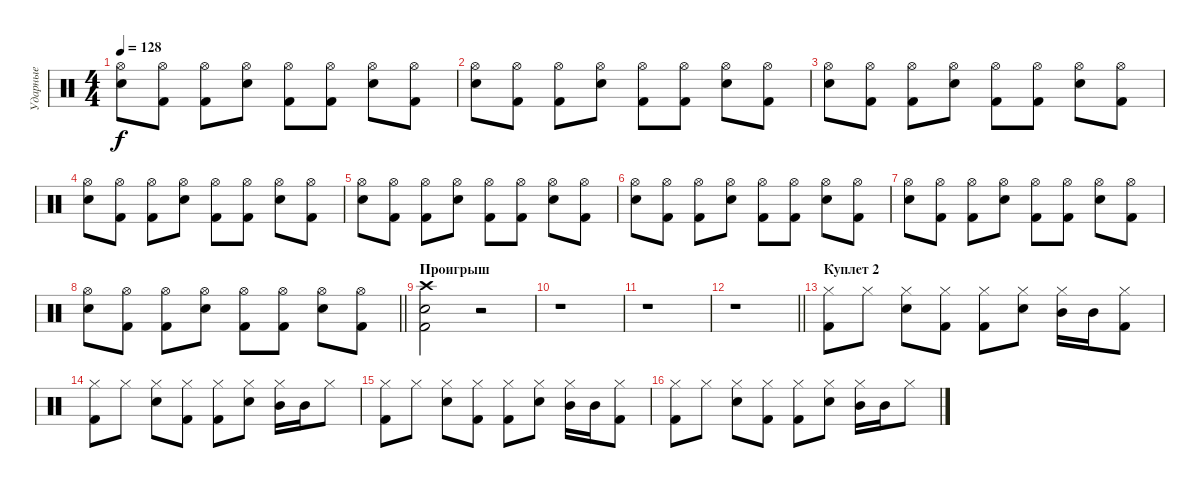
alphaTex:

\track ("Ударные" "Ударные") {instrument percussion}
\staff {score}
\articulation defaults
\ts (4 4)
\tempo 128
\clef neutral
\ks c
("Snare (hit) 2" "Hi-Hat (open)").8{dy f} ("Kick (hit) 2" "Hi-Hat (open)").8 ("Kick (hit) 2" "Hi-Hat (open)").8 ("Snare (hit) 2" "Hi-Hat (open)").8 ("Kick (hit) 2" "Hi-Hat (open)").8 ("Kick (hit) 2" "Hi-Hat (open)").8 ("Snare (hit) 2" "Hi-Hat (open)").8 ("Kick (hit) 2" "Hi-Hat (open)").8 |
("Snare (hit) 2" "Hi-Hat (open)").8 ("Kick (hit) 2" "Hi-Hat (open)").8 ("Kick (hit) 2" "Hi-Hat (open)").8 ("Snare (hit) 2" "Hi-Hat (open)").8 ("Kick (hit) 2" "Hi-Hat (open)").8 ("Kick (hit) 2" "Hi-Hat (open)").8 ("Snare (hit) 2" "Hi-Hat (open)").8 ("Kick (hit) 2" "Hi-Hat (open)").8 |
("Snare (hit) 2" "Hi-Hat (open)").8 ("Kick (hit) 2" "Hi-Hat (open)").8 ("Kick (hit) 2" "Hi-Hat (open)").8 ("Snare (hit) 2" "Hi-Hat (open)").8 ("Kick (hit) 2" "Hi-Hat (open)").8 ("Kick (hit) 2" "Hi-Hat (open)").8 ("Snare (hit) 2" "Hi-Hat (open)").8 ("Kick (hit) 2" "Hi-Hat (open)").8 |
("Snare (hit) 2" "Hi-Hat (open)").8 ("Kick (hit) 2" "Hi-Hat (open)").8 ("Kick (hit) 2" "Hi-Hat (open)").8 ("Snare (hit) 2" "Hi-Hat (open)").8 ("Kick (hit) 2" "Hi-Hat (open)").8 ("Kick (hit) 2" "Hi-Hat (open)").8 ("Snare (hit) 2" "Hi-Hat (open)").8 ("Kick (hit) 2" "Hi-Hat (open)").8 |
("Snare (hit) 2" "Hi-Hat (open)").8 ("Kick (hit) 2" "Hi-Hat (open)").8 ("Kick (hit) 2" "Hi-Hat (open)").8 ("Snare (hit) 2" "Hi-Hat (open)").8 ("Kick (hit) 2" "Hi-Hat (open)").8 ("Kick (hit) 2" "Hi-Hat (open)").8 ("Snare (hit) 2" "Hi-Hat (open)").8 ("Kick (hit) 2" "Hi-Hat (open)").8 |
("Snare (hit) 2" "Hi-Hat (open)").8 ("Kick (hit) 2" "Hi-Hat (open)").8 ("Kick (hit) 2" "Hi-Hat (open)").8 ("Snare (hit) 2" "Hi-Hat (open)").8 ("Kick (hit) 2" "Hi-Hat (open)").8 ("Kick (hit) 2" "Hi-Hat (open)").8 ("Snare (hit) 2" "Hi-Hat (open)").8 ("Kick (hit) 2" "Hi-Hat (open)").8 |
("Snare (hit) 2" "Hi-Hat (open)").8 ("Kick (hit) 2" "Hi-Hat (open)").8 ("Kick (hit) 2" "Hi-Hat (open)").8 ("Snare (hit) 2" "Hi-Hat (open)").8 ("Kick (hit) 2" "Hi-Hat (open)").8 ("Kick (hit) 2" "Hi-Hat (open)").8 ("Snare (hit) 2" "Hi-Hat (open)").8 ("Kick (hit) 2" "Hi-Hat (open)").8 |
\barLineRight lightlight
("Snare (hit) 2" "Hi-Hat (open)").8 ("Kick (hit) 2" "Hi-Hat (open)").8 ("Kick (hit) 2" "Hi-Hat (open)").8 ("Snare (hit) 2" "Hi-Hat (open)").8 ("Kick (hit) 2" "Hi-Hat (open)").8 ("Kick (hit) 2" "Hi-Hat (open)").8 ("Snare (hit) 2" "Hi-Hat (open)").8 ("Kick (hit) 2" "Hi-Hat (open)").8 |
\section ("" "Проигрыш")
("Crash high (hit)" "Snare (hit) 2" "Kick (hit) 2").2 r.2 |
r.1 |
r.1 |
\barLineRight lightlight
r.1 |
\section ("" "Куплет 2")
("Kick (hit) 2" "Hi-Hat (closed)").8 "Hi-Hat (closed)".8 ("Snare (hit) 2" "Hi-Hat (closed)").8 ("Kick (hit) 2" "Hi-Hat (closed)").8 ("Kick (hit) 2" "Hi-Hat (closed)").8 ("Snare (hit) 2" "Hi-Hat (closed)").8 ("Mid Tom (hit)" "Hi-Hat (closed)").16 "Mid Tom (hit)".16 ("Kick (hit) 2" "Hi-Hat (closed)").8 |
("Kick (hit) 2" "Hi-Hat (closed)").8 "Hi-Hat (closed)".8 ("Snare (hit) 2" "Hi-Hat (closed)").8 ("Kick (hit) 2" "Hi-Hat (closed)").8 ("Kick (hit) 2" "Hi-Hat (closed)").8 ("Snare (hit) 2" "Hi-Hat (closed)").8 ("Mid Tom (hit)" "Hi-Hat (closed)").16 "Mid Tom (hit)".16 "Hi-Hat (closed)".8 |
("Kick (hit) 2" "Hi-Hat (closed)").8 "Hi-Hat (closed)".8 ("Snare (hit) 2" "Hi-Hat (closed)").8 ("Kick (hit) 2" "Hi-Hat (closed)").8 ("Kick (hit) 2" "Hi-Hat (closed)").8 ("Snare (hit) 2" "Hi-Hat (closed)").8 ("Mid Tom (hit)" "Hi-Hat (closed)").16 "Mid Tom (hit)".16 ("Kick (hit) 2" "Hi-Hat (closed)").8 |
("Kick (hit) 2" "Hi-Hat (closed)").8 "Hi-Hat (closed)".8 ("Snare (hit) 2" "Hi-Hat (closed)").8 ("Kick (hit) 2" "Hi-Hat (closed)").8 ("Kick (hit) 2" "Hi-Hat (closed)").8 ("Snare (hit) 2" "Hi-Hat (closed)").8 ("Mid Tom (hit)" "Hi-Hat (closed)").16 "Mid Tom (hit)".16 "Hi-Hat (closed)".8
